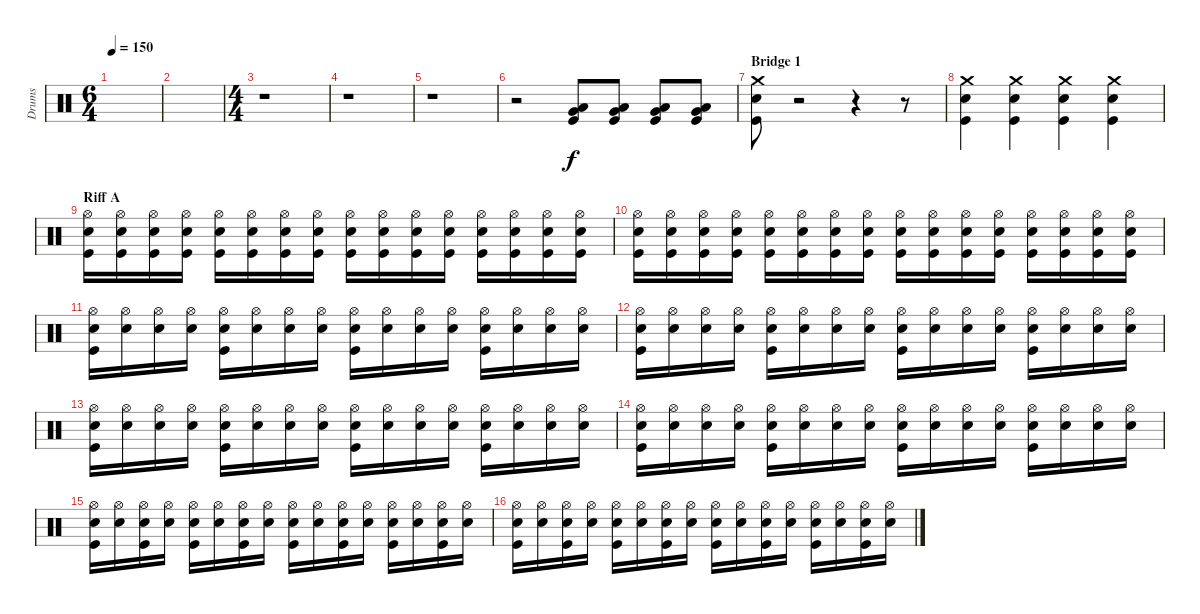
\track ("Drums" "Drums") {instrument percussion}
\staff {score}
\articulation defaults
\ts (6 4)
\tempo 150
\clef neutral
\ks c
|
|
\ts (4 4)
r.1 |
r.1 |
r.1 |
r.2 ("Kick (hit)" "Very Low Tom (hit)" "Low Floor Tom (hit)").8 ("Kick (hit)" "Very Low Tom (hit)" "Low Floor Tom (hit)").8 ("Kick (hit)" "Very Low Tom (hit)" "Low Floor Tom (hit)").8 ("Kick (hit)" "Very Low Tom (hit)" "Low Floor Tom (hit)").8 |
\section ("" "Bridge 1")
("Kick (hit)" "Electric Snare (hit)" "Crash medium (hit)").8 r.2 r.4 r.8 |
("Kick (hit)" "Electric Snare (hit)" "Crash medium (hit)").4 ("Kick (hit)" "Electric Snare (hit)" "Crash medium (hit)").4 ("Kick (hit)" "Electric Snare (hit)" "Crash medium (hit)").4 ("Kick (hit)" "Electric Snare (hit)" "Crash medium (hit)").4 |
\section ("" "Riff A")
("Kick (hit)" "Electric Snare (hit)" "Hi-Hat (open)").16 ("Kick (hit)" "Electric Snare (hit)" "Hi-Hat (open)").16 ("Kick (hit)" "Electric Snare (hit)" "Hi-Hat (open)").16 ("Kick (hit)" "Electric Snare (hit)" "Hi-Hat (open)").16 ("Kick (hit)" "Electric Snare (hit)" "Hi-Hat (open)").16 ("Kick (hit)" "Electric Snare (hit)" "Hi-Hat (open)").16 ("Kick (hit)" "Electric Snare (hit)" "Hi-Hat (open)").16 ("Kick (hit)" "Electric Snare (hit)" "Hi-Hat (open)").16 ("Kick (hit)" "Electric Snare (hit)" "Hi-Hat (open)").16 ("Kick (hit)" "Electric Snare (hit)" "Hi-Hat (open)").16 ("Kick (hit)" "Electric Snare (hit)" "Hi-Hat (open)").16 ("Kick (hit)" "Electric Snare (hit)" "Hi-Hat (open)").16 ("Kick (hit)" "Electric Snare (hit)" "Hi-Hat (open)").16 ("Kick (hit)" "Electric Snare (hit)" "Hi-Hat (open)").16 ("Kick (hit)" "Electric Snare (hit)" "Hi-Hat (open)").16 ("Kick (hit)" "Electric Snare (hit)" "Hi-Hat (open)").16 |
("Kick (hit)" "Electric Snare (hit)" "Hi-Hat (open)").16 ("Kick (hit)" "Electric Snare (hit)" "Hi-Hat (open)").16 ("Kick (hit)" "Electric Snare (hit)" "Hi-Hat (open)").16 ("Kick (hit)" "Electric Snare (hit)" "Hi-Hat (open)").16 ("Kick (hit)" "Electric Snare (hit)" "Hi-Hat (open)").16 ("Kick (hit)" "Electric Snare (hit)" "Hi-Hat (open)").16 ("Kick (hit)" "Electric Snare (hit)" "Hi-Hat (open)").16 ("Kick (hit)" "Electric Snare (hit)" "Hi-Hat (open)").16 ("Kick (hit)" "Electric Snare (hit)" "Hi-Hat (open)").16 ("Kick (hit)" "Electric Snare (hit)" "Hi-Hat (open)").16 ("Kick (hit)" "Electric Snare (hit)" "Hi-Hat (open)").16 ("Kick (hit)" "Electric Snare (hit)" "Hi-Hat (open)").16 ("Kick (hit)" "Electric Snare (hit)" "Hi-Hat (open)").16 ("Kick (hit)" "Electric Snare (hit)" "Hi-Hat (open)").16 ("Kick (hit)" "Electric Snare (hit)" "Hi-Hat (open)").16 ("Kick (hit)" "Electric Snare (hit)" "Hi-Hat (open)").16 |
("Kick (hit)" "Electric Snare (hit)" "Hi-Hat (open)").16 ("Electric Snare (hit)" "Hi-Hat (open)").16 ("Electric Snare (hit)" "Hi-Hat (open)").16 ("Electric Snare (hit)" "Hi-Hat (open)").16 ("Kick (hit)" "Electric Snare (hit)" "Hi-Hat (open)").16 ("Electric Snare (hit)" "Hi-Hat (open)").16 ("Electric Snare (hit)" "Hi-Hat (open)").16 ("Electric Snare (hit)" "Hi-Hat (open)").16 ("Kick (hit)" "Electric Snare (hit)" "Hi-Hat (open)").16 ("Electric Snare (hit)" "Hi-Hat (open)").16 ("Electric Snare (hit)" "Hi-Hat (open)").16 ("Electric Snare (hit)" "Hi-Hat (open)").16 ("Kick (hit)" "Electric Snare (hit)" "Hi-Hat (open)").16 ("Electric Snare (hit)" "Hi-Hat (open)").16 ("Electric Snare (hit)" "Hi-Hat (open)").16 ("Electric Snare (hit)" "Hi-Hat (open)").16 |
("Kick (hit)" "Electric Snare (hit)" "Hi-Hat (open)").16 ("Electric Snare (hit)" "Hi-Hat (open)").16 ("Electric Snare (hit)" "Hi-Hat (open)").16 ("Electric Snare (hit)" "Hi-Hat (open)").16 ("Kick (hit)" "Electric Snare (hit)" "Hi-Hat (open)").16 ("Electric Snare (hit)" "Hi-Hat (open)").16 ("Electric Snare (hit)" "Hi-Hat (open)").16 ("Electric Snare (hit)" "Hi-Hat (open)").16 ("Kick (hit)" "Electric Snare (hit)" "Hi-Hat (open)").16 ("Electric Snare (hit)" "Hi-Hat (open)").16 ("Electric Snare (hit)" "Hi-Hat (open)").16 ("Electric Snare (hit)" "Hi-Hat (open)").16 ("Kick (hit)" "Electric Snare (hit)" "Hi-Hat (open)").16 ("Electric Snare (hit)" "Hi-Hat (open)").16 ("Electric Snare (hit)" "Hi-Hat (open)").16 ("Electric Snare (hit)" "Hi-Hat (open)").16 |
("Kick (hit)" "Electric Snare (hit)" "Hi-Hat (open)").16 ("Electric Snare (hit)" "Hi-Hat (open)").16 ("Electric Snare (hit)" "Hi-Hat (open)").16 ("Electric Snare (hit)" "Hi-Hat (open)").16 ("Kick (hit)" "Electric Snare (hit)" "Hi-Hat (open)").16 ("Electric Snare (hit)" "Hi-Hat (open)").16 ("Electric Snare (hit)" "Hi-Hat (open)").16 ("Electric Snare (hit)" "Hi-Hat (open)").16 ("Kick (hit)" "Electric Snare (hit)" "Hi-Hat (open)").16 ("Electric Snare (hit)" "Hi-Hat (open)").16 ("Electric Snare (hit)" "Hi-Hat (open)").16 ("Electric Snare (hit)" "Hi-Hat (open)").16 ("Kick (hit)" "Electric Snare (hit)" "Hi-Hat (open)").16 ("Electric Snare (hit)" "Hi-Hat (open)").16 ("Electric Snare (hit)" "Hi-Hat (open)").16 ("Electric Snare (hit)" "Hi-Hat (open)").16 |
("Kick (hit)" "Electric Snare (hit)" "Hi-Hat (open)").16 ("Electric Snare (hit)" "Hi-Hat (open)").16 ("Electric Snare (hit)" "Hi-Hat (open)").16 ("Electric Snare (hit)" "Hi-Hat (open)").16 ("Kick (hit)" "Electric Snare (hit)" "Hi-Hat (open)").16 ("Electric Snare (hit)" "Hi-Hat (open)").16 ("Electric Snare (hit)" "Hi-Hat (open)").16 ("Electric Snare (hit)" "Hi-Hat (open)").16 ("Kick (hit)" "Electric Snare (hit)" "Hi-Hat (open)").16 ("Electric Snare (hit)" "Hi-Hat (open)").16 ("Electric Snare (hit)" "Hi-Hat (open)").16 ("Electric Snare (hit)" "Hi-Hat (open)").16 ("Kick (hit)" "Electric Snare (hit)" "Hi-Hat (open)").16 ("Electric Snare (hit)" "Hi-Hat (open)").16 ("Electric Snare (hit)" "Hi-Hat (open)").16 ("Electric Snare (hit)" "Hi-Hat (open)").16 |
("Kick (hit)" "Electric Snare (hit)" "Hi-Hat (open)").16 ("Electric Snare (hit)" "Hi-Hat (open)").16 ("Kick (hit)" "Electric Snare (hit)" "Hi-Hat (open)").16 ("Electric Snare (hit)" "Hi-Hat (open)").16 ("Kick (hit)" "Electric Snare (hit)" "Hi-Hat (open)").16 ("Electric Snare (hit)" "Hi-Hat (open)").16 ("Kick (hit)" "Electric Snare (hit)" "Hi-Hat (open)").16 ("Electric Snare (hit)" "Hi-Hat (open)").16 ("Kick (hit)" "Electric Snare (hit)" "Hi-Hat (open)").16 ("Electric Snare (hit)" "Hi-Hat (open)").16 ("Kick (hit)" "Electric Snare (hit)" "Hi-Hat (open)").16 ("Electric Snare (hit)" "Hi-Hat (open)").16 ("Kick (hit)" "Electric Snare (hit)" "Hi-Hat (open)").16 ("Electric Snare (hit)" "Hi-Hat (open)").16 ("Kick (hit)" "Electric Snare (hit)" "Hi-Hat (open)").16 ("Electric Snare (hit)" "Hi-Hat (open)").16 |
("Kick (hit)" "Electric Snare (hit)" "Hi-Hat (open)").16 ("Electric Snare (hit)" "Hi-Hat (open)").16 ("Kick (hit)" "Electric Snare (hit)" "Hi-Hat (open)").16 ("Electric Snare (hit)" "Hi-Hat (open)").16 ("Kick (hit)" "Electric Snare (hit)" "Hi-Hat (open)").16 ("Electric Snare (hit)" "Hi-Hat (open)").16 ("Kick (hit)" "Electric Snare (hit)" "Hi-Hat (open)").16 ("Electric Snare (hit)" "Hi-Hat (open)").16 ("Kick (hit)" "Electric Snare (hit)" "Hi-Hat (open)").16 ("Electric Snare (hit)" "Hi-Hat (open)").16 ("Kick (hit)" "Electric Snare (hit)" "Hi-Hat (open)").16 ("Electric Snare (hit)" "Hi-Hat (open)").16 ("Kick (hit)" "Electric Snare (hit)" "Hi-Hat (open)").16 ("Electric Snare (hit)" "Hi-Hat (open)").16 ("Kick (hit)" "Electric Snare (hit)" "Hi-Hat (open)").16 ("Electric Snare (hit)" "Hi-Hat (open)").16
